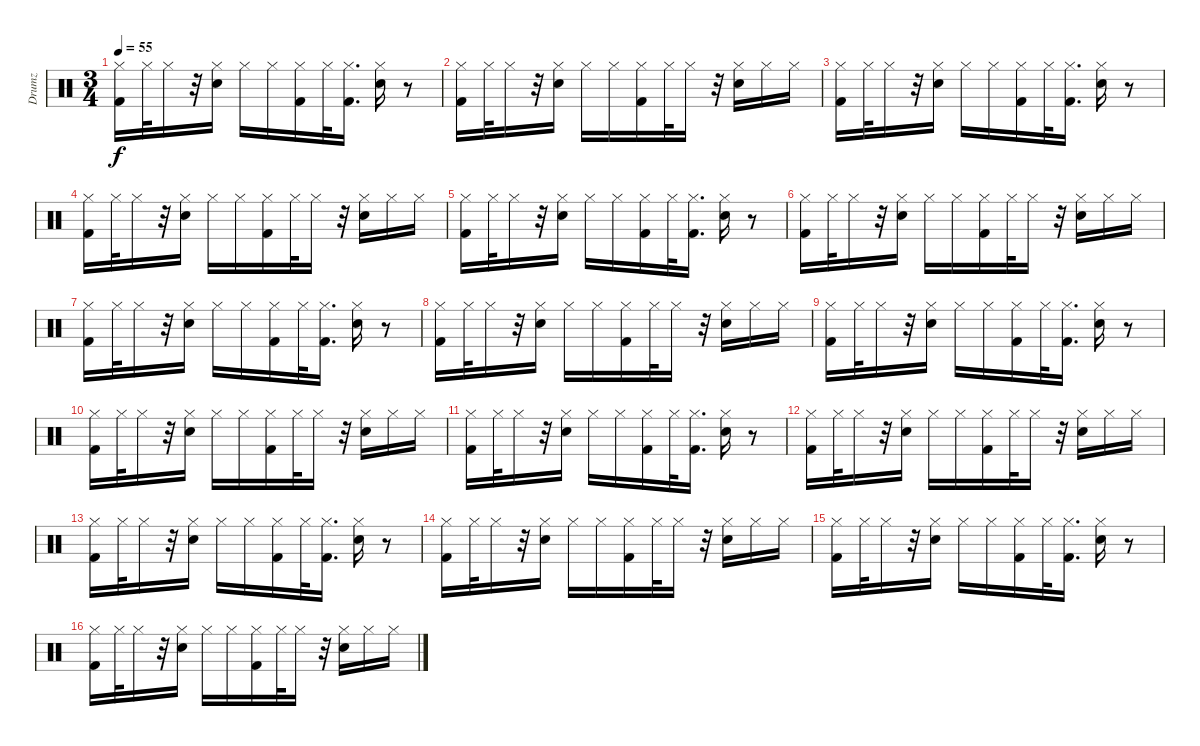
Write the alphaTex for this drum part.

\track ("Drumz" "Drumz") {instrument percussion}
\staff {score}
\articulation defaults
\ts (3 4)
\tempo 55
\clef neutral
\ks c
("Hi-Hat (closed)" "Kick (hit) 2").16{dy f} "Hi-Hat (closed)".32 "Hi-Hat (closed)".16 r.32 ("Hi-Hat (closed)" "Snare (hit) 2").16 "Hi-Hat (closed)".16 "Hi-Hat (closed)".16 ("Hi-Hat (closed)" "Kick (hit) 2").16 "Hi-Hat (closed)".32 ("Hi-Hat (closed)" "Kick (hit) 2").16{d} ("Hi-Hat (closed)" "Snare (hit) 2").16 r.8 |
("Hi-Hat (closed)" "Kick (hit) 2").16 "Hi-Hat (closed)".32 "Hi-Hat (closed)".16 r.32 ("Hi-Hat (closed)" "Snare (hit) 2").16 "Hi-Hat (closed)".16 "Hi-Hat (closed)".16 ("Hi-Hat (closed)" "Kick (hit) 2").16 "Hi-Hat (closed)".32 "Hi-Hat (closed)".16 r.32 ("Hi-Hat (closed)" "Snare (hit) 2").16 "Hi-Hat (closed)".16 "Hi-Hat (closed)".16 |
("Hi-Hat (closed)" "Kick (hit) 2").16 "Hi-Hat (closed)".32 "Hi-Hat (closed)".16 r.32 ("Hi-Hat (closed)" "Snare (hit) 2").16 "Hi-Hat (closed)".16 "Hi-Hat (closed)".16 ("Hi-Hat (closed)" "Kick (hit) 2").16 "Hi-Hat (closed)".32 ("Hi-Hat (closed)" "Kick (hit) 2").16{d} ("Hi-Hat (closed)" "Snare (hit) 2").16 r.8 |
("Hi-Hat (closed)" "Kick (hit) 2").16 "Hi-Hat (closed)".32 "Hi-Hat (closed)".16 r.32 ("Hi-Hat (closed)" "Snare (hit) 2").16 "Hi-Hat (closed)".16 "Hi-Hat (closed)".16 ("Hi-Hat (closed)" "Kick (hit) 2").16 "Hi-Hat (closed)".32 "Hi-Hat (closed)".16 r.32 ("Hi-Hat (closed)" "Snare (hit) 2").16 "Hi-Hat (closed)".16 "Hi-Hat (closed)".16 |
("Hi-Hat (closed)" "Kick (hit) 2").16 "Hi-Hat (closed)".32 "Hi-Hat (closed)".16 r.32 ("Hi-Hat (closed)" "Snare (hit) 2").16 "Hi-Hat (closed)".16 "Hi-Hat (closed)".16 ("Hi-Hat (closed)" "Kick (hit) 2").16 "Hi-Hat (closed)".32 ("Hi-Hat (closed)" "Kick (hit) 2").16{d} ("Hi-Hat (closed)" "Snare (hit) 2").16 r.8 |
("Hi-Hat (closed)" "Kick (hit) 2").16 "Hi-Hat (closed)".32 "Hi-Hat (closed)".16 r.32 ("Hi-Hat (closed)" "Snare (hit) 2").16 "Hi-Hat (closed)".16 "Hi-Hat (closed)".16 ("Hi-Hat (closed)" "Kick (hit) 2").16 "Hi-Hat (closed)".32 "Hi-Hat (closed)".16 r.32 ("Hi-Hat (closed)" "Snare (hit) 2").16 "Hi-Hat (closed)".16 "Hi-Hat (closed)".16 |
("Hi-Hat (closed)" "Kick (hit) 2").16 "Hi-Hat (closed)".32 "Hi-Hat (closed)".16 r.32 ("Hi-Hat (closed)" "Snare (hit) 2").16 "Hi-Hat (closed)".16 "Hi-Hat (closed)".16 ("Hi-Hat (closed)" "Kick (hit) 2").16 "Hi-Hat (closed)".32 ("Hi-Hat (closed)" "Kick (hit) 2").16{d} ("Hi-Hat (closed)" "Snare (hit) 2").16 r.8 |
("Hi-Hat (closed)" "Kick (hit) 2").16 "Hi-Hat (closed)".32 "Hi-Hat (closed)".16 r.32 ("Hi-Hat (closed)" "Snare (hit) 2").16 "Hi-Hat (closed)".16 "Hi-Hat (closed)".16 ("Hi-Hat (closed)" "Kick (hit) 2").16 "Hi-Hat (closed)".32 "Hi-Hat (closed)".16 r.32 ("Hi-Hat (closed)" "Snare (hit) 2").16 "Hi-Hat (closed)".16 "Hi-Hat (closed)".16 |
("Hi-Hat (closed)" "Kick (hit) 2").16 "Hi-Hat (closed)".32 "Hi-Hat (closed)".16 r.32 ("Hi-Hat (closed)" "Snare (hit) 2").16 "Hi-Hat (closed)".16 "Hi-Hat (closed)".16 ("Hi-Hat (closed)" "Kick (hit) 2").16 "Hi-Hat (closed)".32 ("Hi-Hat (closed)" "Kick (hit) 2").16{d} ("Hi-Hat (closed)" "Snare (hit) 2").16 r.8 |
("Hi-Hat (closed)" "Kick (hit) 2").16 "Hi-Hat (closed)".32 "Hi-Hat (closed)".16 r.32 ("Hi-Hat (closed)" "Snare (hit) 2").16 "Hi-Hat (closed)".16 "Hi-Hat (closed)".16 ("Hi-Hat (closed)" "Kick (hit) 2").16 "Hi-Hat (closed)".32 "Hi-Hat (closed)".16 r.32 ("Hi-Hat (closed)" "Snare (hit) 2").16 "Hi-Hat (closed)".16 "Hi-Hat (closed)".16 |
("Hi-Hat (closed)" "Kick (hit) 2").16 "Hi-Hat (closed)".32 "Hi-Hat (closed)".16 r.32 ("Hi-Hat (closed)" "Snare (hit) 2").16 "Hi-Hat (closed)".16 "Hi-Hat (closed)".16 ("Hi-Hat (closed)" "Kick (hit) 2").16 "Hi-Hat (closed)".32 ("Hi-Hat (closed)" "Kick (hit) 2").16{d} ("Hi-Hat (closed)" "Snare (hit) 2").16 r.8 |
("Hi-Hat (closed)" "Kick (hit) 2").16 "Hi-Hat (closed)".32 "Hi-Hat (closed)".16 r.32 ("Hi-Hat (closed)" "Snare (hit) 2").16 "Hi-Hat (closed)".16 "Hi-Hat (closed)".16 ("Hi-Hat (closed)" "Kick (hit) 2").16 "Hi-Hat (closed)".32 "Hi-Hat (closed)".16 r.32 ("Hi-Hat (closed)" "Snare (hit) 2").16 "Hi-Hat (closed)".16 "Hi-Hat (closed)".16 |
("Hi-Hat (closed)" "Kick (hit) 2").16 "Hi-Hat (closed)".32 "Hi-Hat (closed)".16 r.32 ("Hi-Hat (closed)" "Snare (hit) 2").16 "Hi-Hat (closed)".16 "Hi-Hat (closed)".16 ("Hi-Hat (closed)" "Kick (hit) 2").16 "Hi-Hat (closed)".32 ("Hi-Hat (closed)" "Kick (hit) 2").16{d} ("Hi-Hat (closed)" "Snare (hit) 2").16 r.8 |
("Hi-Hat (closed)" "Kick (hit) 2").16 "Hi-Hat (closed)".32 "Hi-Hat (closed)".16 r.32 ("Hi-Hat (closed)" "Snare (hit) 2").16 "Hi-Hat (closed)".16 "Hi-Hat (closed)".16 ("Hi-Hat (closed)" "Kick (hit) 2").16 "Hi-Hat (closed)".32 "Hi-Hat (closed)".16 r.32 ("Hi-Hat (closed)" "Snare (hit) 2").16 "Hi-Hat (closed)".16 "Hi-Hat (closed)".16 |
("Hi-Hat (closed)" "Kick (hit) 2").16 "Hi-Hat (closed)".32 "Hi-Hat (closed)".16 r.32 ("Hi-Hat (closed)" "Snare (hit) 2").16 "Hi-Hat (closed)".16 "Hi-Hat (closed)".16 ("Hi-Hat (closed)" "Kick (hit) 2").16 "Hi-Hat (closed)".32 ("Hi-Hat (closed)" "Kick (hit) 2").16{d} ("Hi-Hat (closed)" "Snare (hit) 2").16 r.8 |
("Hi-Hat (closed)" "Kick (hit) 2").16 "Hi-Hat (closed)".32 "Hi-Hat (closed)".16 r.32 ("Hi-Hat (closed)" "Snare (hit) 2").16 "Hi-Hat (closed)".16 "Hi-Hat (closed)".16 ("Hi-Hat (closed)" "Kick (hit) 2").16 "Hi-Hat (closed)".32 "Hi-Hat (closed)".16 r.32 ("Hi-Hat (closed)" "Snare (hit) 2").16 "Hi-Hat (closed)".16 "Hi-Hat (closed)".16
